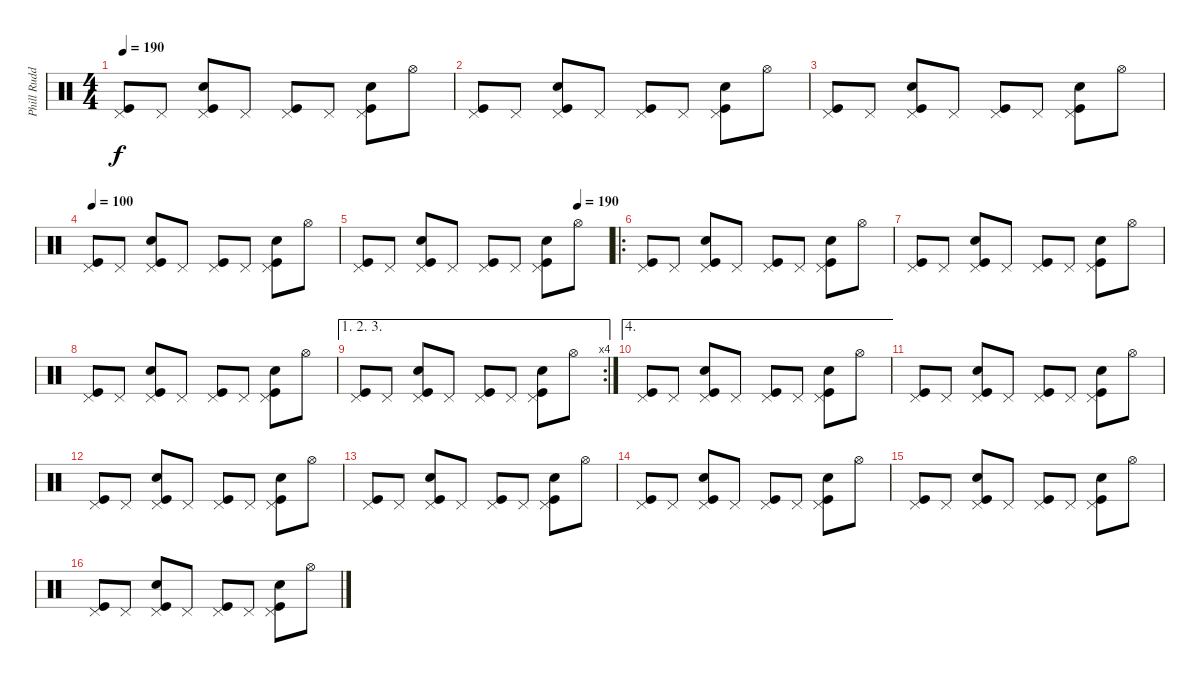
\track ("Phill Rudd (Drums)" "Phill Rudd") {instrument percussion}
\staff {score}
\articulation defaults
\ts (4 4)
\tempo 190
\clef neutral
\ks c
("Pedal Hi-Hat (hit)" "Kick (hit)").8{dy f} "Pedal Hi-Hat (hit)".8 ("Pedal Hi-Hat (hit)" "Snare (hit) 2" "Kick (hit)").8 "Pedal Hi-Hat (hit)".8 ("Pedal Hi-Hat (hit)" "Kick (hit)").8 "Pedal Hi-Hat (hit)".8 ("Pedal Hi-Hat (hit)" "Snare (hit) 2" "Kick (hit)").8 "Hi-Hat (open)".8 |
("Pedal Hi-Hat (hit)" "Kick (hit)").8 "Pedal Hi-Hat (hit)".8 ("Pedal Hi-Hat (hit)" "Snare (hit) 2" "Kick (hit)").8 "Pedal Hi-Hat (hit)".8 ("Pedal Hi-Hat (hit)" "Kick (hit)").8 "Pedal Hi-Hat (hit)".8 ("Pedal Hi-Hat (hit)" "Snare (hit) 2" "Kick (hit)").8 "Hi-Hat (open)".8 |
("Pedal Hi-Hat (hit)" "Kick (hit)").8 "Pedal Hi-Hat (hit)".8 ("Pedal Hi-Hat (hit)" "Snare (hit) 2" "Kick (hit)").8 "Pedal Hi-Hat (hit)".8 ("Pedal Hi-Hat (hit)" "Kick (hit)").8 "Pedal Hi-Hat (hit)".8 ("Pedal Hi-Hat (hit)" "Snare (hit) 2" "Kick (hit)").8 "Hi-Hat (open)".8 |
\tempo 100
("Pedal Hi-Hat (hit)" "Kick (hit)").8 "Pedal Hi-Hat (hit)".8 ("Pedal Hi-Hat (hit)" "Snare (hit) 2" "Kick (hit)").8 "Pedal Hi-Hat (hit)".8 ("Pedal Hi-Hat (hit)" "Kick (hit)").8 "Pedal Hi-Hat (hit)".8 ("Pedal Hi-Hat (hit)" "Snare (hit) 2" "Kick (hit)").8 "Hi-Hat (open)".8 |
\tempo (190 0.875)
("Pedal Hi-Hat (hit)" "Kick (hit)").8 "Pedal Hi-Hat (hit)".8 ("Pedal Hi-Hat (hit)" "Snare (hit) 2" "Kick (hit)").8 "Pedal Hi-Hat (hit)".8 ("Pedal Hi-Hat (hit)" "Kick (hit)").8 "Pedal Hi-Hat (hit)".8 ("Pedal Hi-Hat (hit)" "Snare (hit) 2" "Kick (hit)").8 "Hi-Hat (open)".8 |
\ro
("Pedal Hi-Hat (hit)" "Kick (hit)").8 "Pedal Hi-Hat (hit)".8 ("Pedal Hi-Hat (hit)" "Snare (hit) 2" "Kick (hit)").8 "Pedal Hi-Hat (hit)".8 ("Pedal Hi-Hat (hit)" "Kick (hit)").8 "Pedal Hi-Hat (hit)".8 ("Pedal Hi-Hat (hit)" "Snare (hit) 2" "Kick (hit)").8 "Hi-Hat (open)".8 |
("Pedal Hi-Hat (hit)" "Kick (hit)").8 "Pedal Hi-Hat (hit)".8 ("Pedal Hi-Hat (hit)" "Snare (hit) 2" "Kick (hit)").8 "Pedal Hi-Hat (hit)".8 ("Pedal Hi-Hat (hit)" "Kick (hit)").8 "Pedal Hi-Hat (hit)".8 ("Pedal Hi-Hat (hit)" "Snare (hit) 2" "Kick (hit)").8 "Hi-Hat (open)".8 |
("Pedal Hi-Hat (hit)" "Kick (hit)").8 "Pedal Hi-Hat (hit)".8 ("Pedal Hi-Hat (hit)" "Snare (hit) 2" "Kick (hit)").8 "Pedal Hi-Hat (hit)".8 ("Pedal Hi-Hat (hit)" "Kick (hit)").8 "Pedal Hi-Hat (hit)".8 ("Pedal Hi-Hat (hit)" "Snare (hit) 2" "Kick (hit)").8 "Hi-Hat (open)".8 |
\ae (1 2 3)
\rc 4
("Pedal Hi-Hat (hit)" "Kick (hit)").8 "Pedal Hi-Hat (hit)".8 ("Pedal Hi-Hat (hit)" "Snare (hit) 2" "Kick (hit)").8 "Pedal Hi-Hat (hit)".8 ("Pedal Hi-Hat (hit)" "Kick (hit)").8 "Pedal Hi-Hat (hit)".8 ("Pedal Hi-Hat (hit)" "Snare (hit) 2" "Kick (hit)").8 "Hi-Hat (open)".8 |
\ae 4
("Pedal Hi-Hat (hit)" "Kick (hit)").8 "Pedal Hi-Hat (hit)".8 ("Pedal Hi-Hat (hit)" "Snare (hit) 2" "Kick (hit)").8 "Pedal Hi-Hat (hit)".8 ("Pedal Hi-Hat (hit)" "Kick (hit)").8 "Pedal Hi-Hat (hit)".8 ("Pedal Hi-Hat (hit)" "Snare (hit) 2" "Kick (hit)").8 "Hi-Hat (open)".8 |
("Pedal Hi-Hat (hit)" "Kick (hit)").8 "Pedal Hi-Hat (hit)".8 ("Pedal Hi-Hat (hit)" "Snare (hit) 2" "Kick (hit)").8 "Pedal Hi-Hat (hit)".8 ("Pedal Hi-Hat (hit)" "Kick (hit)").8 "Pedal Hi-Hat (hit)".8 ("Pedal Hi-Hat (hit)" "Snare (hit) 2" "Kick (hit)").8 "Hi-Hat (open)".8 |
("Pedal Hi-Hat (hit)" "Kick (hit)").8 "Pedal Hi-Hat (hit)".8 ("Pedal Hi-Hat (hit)" "Snare (hit) 2" "Kick (hit)").8 "Pedal Hi-Hat (hit)".8 ("Pedal Hi-Hat (hit)" "Kick (hit)").8 "Pedal Hi-Hat (hit)".8 ("Pedal Hi-Hat (hit)" "Snare (hit) 2" "Kick (hit)").8 "Hi-Hat (open)".8 |
("Pedal Hi-Hat (hit)" "Kick (hit)").8 "Pedal Hi-Hat (hit)".8 ("Pedal Hi-Hat (hit)" "Snare (hit) 2" "Kick (hit)").8 "Pedal Hi-Hat (hit)".8 ("Pedal Hi-Hat (hit)" "Kick (hit)").8 "Pedal Hi-Hat (hit)".8 ("Pedal Hi-Hat (hit)" "Snare (hit) 2" "Kick (hit)").8 "Hi-Hat (open)".8 |
("Pedal Hi-Hat (hit)" "Kick (hit)").8 "Pedal Hi-Hat (hit)".8 ("Pedal Hi-Hat (hit)" "Snare (hit) 2" "Kick (hit)").8 "Pedal Hi-Hat (hit)".8 ("Pedal Hi-Hat (hit)" "Kick (hit)").8 "Pedal Hi-Hat (hit)".8 ("Pedal Hi-Hat (hit)" "Snare (hit) 2" "Kick (hit)").8 "Hi-Hat (open)".8 |
("Pedal Hi-Hat (hit)" "Kick (hit)").8 "Pedal Hi-Hat (hit)".8 ("Pedal Hi-Hat (hit)" "Snare (hit) 2" "Kick (hit)").8 "Pedal Hi-Hat (hit)".8 ("Pedal Hi-Hat (hit)" "Kick (hit)").8 "Pedal Hi-Hat (hit)".8 ("Pedal Hi-Hat (hit)" "Snare (hit) 2" "Kick (hit)").8 "Hi-Hat (open)".8 |
("Pedal Hi-Hat (hit)" "Kick (hit)").8 "Pedal Hi-Hat (hit)".8 ("Pedal Hi-Hat (hit)" "Snare (hit) 2" "Kick (hit)").8 "Pedal Hi-Hat (hit)".8 ("Pedal Hi-Hat (hit)" "Kick (hit)").8 "Pedal Hi-Hat (hit)".8 ("Pedal Hi-Hat (hit)" "Snare (hit) 2" "Kick (hit)").8 "Hi-Hat (open)".8
